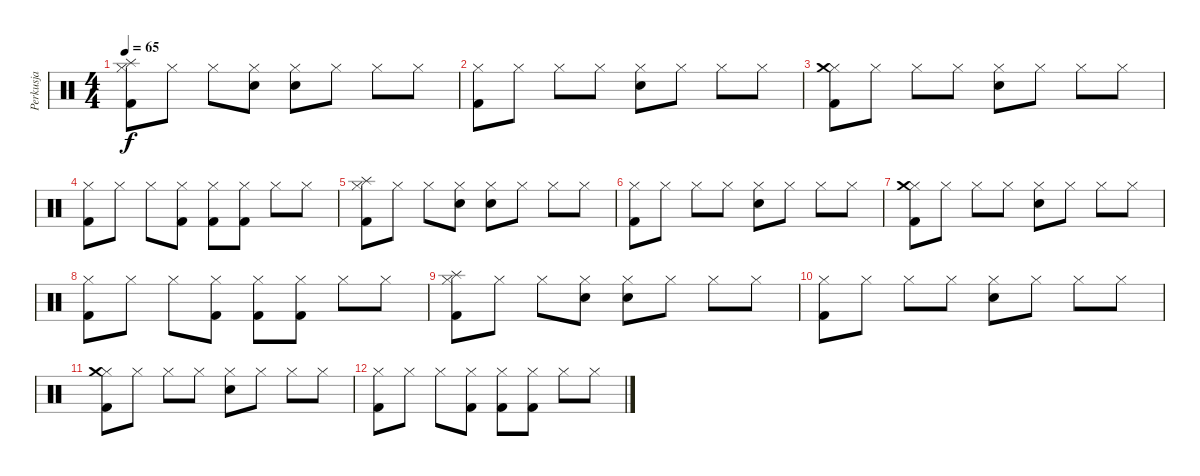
\track ("Perkusja" "Perkusja") {instrument percussion}
\staff {score}
\articulation defaults
\ts (4 4)
\tempo 65
\clef neutral
\ks c
("Kick (hit) 2" "Hi-Hat (closed)" "Splash (hit)").8{dy f} "Hi-Hat (closed)".8 "Hi-Hat (closed)".8 ("Snare (hit) 2" "Hi-Hat (closed)").8 ("Snare (hit) 2" "Hi-Hat (closed)").8 "Hi-Hat (closed)".8 "Hi-Hat (closed)".8 "Hi-Hat (closed)".8 |
("Kick (hit) 2" "Hi-Hat (closed)").8 "Hi-Hat (closed)".8 "Hi-Hat (closed)".8 "Hi-Hat (closed)".8 ("Snare (hit) 2" "Hi-Hat (closed)").8 "Hi-Hat (closed)".8 "Hi-Hat (closed)".8 "Hi-Hat (closed)".8 |
("Kick (hit) 2" "Hi-Hat (closed)" "Crash medium (hit)").8 "Hi-Hat (closed)".8 "Hi-Hat (closed)".8 "Hi-Hat (closed)".8 ("Snare (hit) 2" "Hi-Hat (closed)").8 "Hi-Hat (closed)".8 "Hi-Hat (closed)".8 "Hi-Hat (closed)".8 |
("Kick (hit) 2" "Hi-Hat (closed)").8 "Hi-Hat (closed)".8 "Hi-Hat (closed)".8 ("Kick (hit) 2" "Hi-Hat (closed)").8 ("Kick (hit) 2" "Hi-Hat (closed)").8 ("Kick (hit) 2" "Hi-Hat (closed)").8 "Hi-Hat (closed)".8 "Hi-Hat (closed)".8 |
("Kick (hit) 2" "Hi-Hat (closed)" "Splash (hit)").8 "Hi-Hat (closed)".8 "Hi-Hat (closed)".8 ("Snare (hit) 2" "Hi-Hat (closed)").8 ("Snare (hit) 2" "Hi-Hat (closed)").8 "Hi-Hat (closed)".8 "Hi-Hat (closed)".8 "Hi-Hat (closed)".8 |
("Kick (hit) 2" "Hi-Hat (closed)").8 "Hi-Hat (closed)".8 "Hi-Hat (closed)".8 "Hi-Hat (closed)".8 ("Snare (hit) 2" "Hi-Hat (closed)").8 "Hi-Hat (closed)".8 "Hi-Hat (closed)".8 "Hi-Hat (closed)".8 |
("Kick (hit) 2" "Hi-Hat (closed)" "Crash medium (hit)").8 "Hi-Hat (closed)".8 "Hi-Hat (closed)".8 "Hi-Hat (closed)".8 ("Snare (hit) 2" "Hi-Hat (closed)").8 "Hi-Hat (closed)".8 "Hi-Hat (closed)".8 "Hi-Hat (closed)".8 |
("Kick (hit) 2" "Hi-Hat (closed)").8 "Hi-Hat (closed)".8 "Hi-Hat (closed)".8 ("Kick (hit) 2" "Hi-Hat (closed)").8 ("Kick (hit) 2" "Hi-Hat (closed)").8 ("Kick (hit) 2" "Hi-Hat (closed)").8 "Hi-Hat (closed)".8 "Hi-Hat (closed)".8 |
("Kick (hit) 2" "Hi-Hat (closed)" "Splash (hit)").8 "Hi-Hat (closed)".8 "Hi-Hat (closed)".8 ("Snare (hit) 2" "Hi-Hat (closed)").8 ("Snare (hit) 2" "Hi-Hat (closed)").8 "Hi-Hat (closed)".8 "Hi-Hat (closed)".8 "Hi-Hat (closed)".8 |
("Kick (hit) 2" "Hi-Hat (closed)").8 "Hi-Hat (closed)".8 "Hi-Hat (closed)".8 "Hi-Hat (closed)".8 ("Snare (hit) 2" "Hi-Hat (closed)").8 "Hi-Hat (closed)".8 "Hi-Hat (closed)".8 "Hi-Hat (closed)".8 |
("Kick (hit) 2" "Hi-Hat (closed)" "Crash medium (hit)").8 "Hi-Hat (closed)".8 "Hi-Hat (closed)".8 "Hi-Hat (closed)".8 ("Snare (hit) 2" "Hi-Hat (closed)").8 "Hi-Hat (closed)".8 "Hi-Hat (closed)".8 "Hi-Hat (closed)".8 |
("Kick (hit) 2" "Hi-Hat (closed)").8 "Hi-Hat (closed)".8 "Hi-Hat (closed)".8 ("Kick (hit) 2" "Hi-Hat (closed)").8 ("Kick (hit) 2" "Hi-Hat (closed)").8 ("Kick (hit) 2" "Hi-Hat (closed)").8 "Hi-Hat (closed)".8 "Hi-Hat (closed)".8
